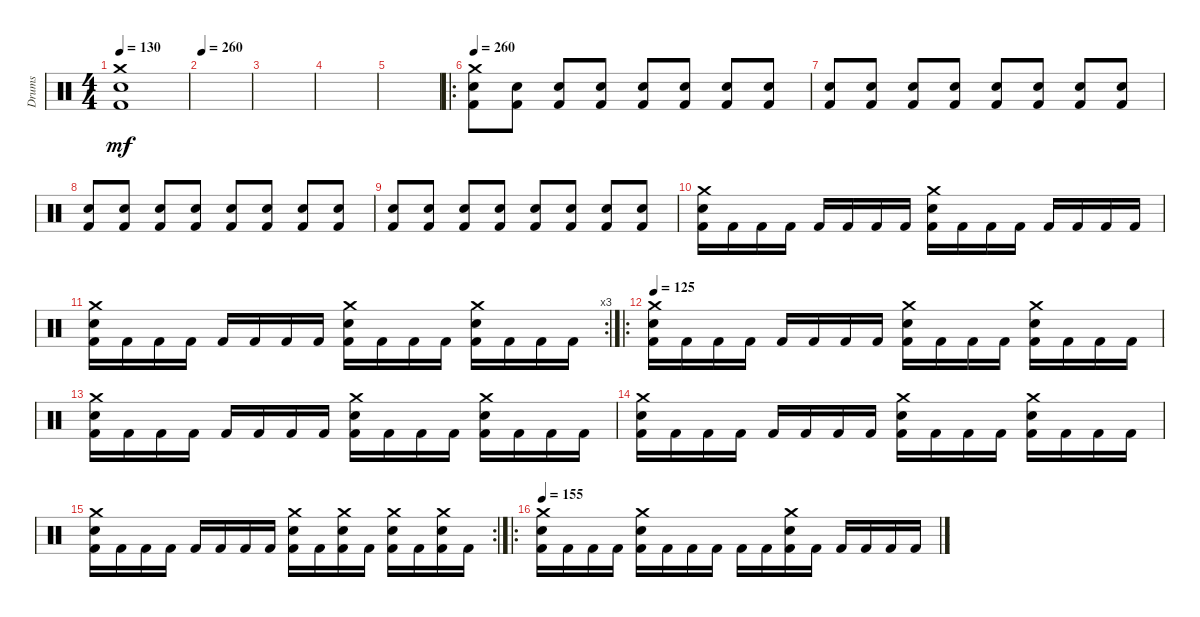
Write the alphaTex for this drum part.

\track ("Drums" "Drums") {instrument percussion}
\staff {score}
\articulation defaults
\ts (4 4)
\tempo 130
\clef neutral
\ks c
("Kick (hit) 2" "Snare (hit) 2" "Crash medium (hit)").1{dy mf} |
\tempo 260
|
|
|
|
\ro
\tempo 260
("Kick (hit) 2" "Snare (hit) 2" "Crash medium (hit)").8 ("Kick (hit) 2" "Snare (hit) 2").8 ("Kick (hit) 2" "Snare (hit) 2").8 ("Kick (hit) 2" "Snare (hit) 2").8 ("Kick (hit) 2" "Snare (hit) 2").8 ("Kick (hit) 2" "Snare (hit) 2").8 ("Kick (hit) 2" "Snare (hit) 2").8 ("Kick (hit) 2" "Snare (hit) 2").8 |
("Kick (hit) 2" "Snare (hit) 2").8 ("Kick (hit) 2" "Snare (hit) 2").8 ("Kick (hit) 2" "Snare (hit) 2").8 ("Kick (hit) 2" "Snare (hit) 2").8 ("Kick (hit) 2" "Snare (hit) 2").8 ("Kick (hit) 2" "Snare (hit) 2").8 ("Kick (hit) 2" "Snare (hit) 2").8 ("Kick (hit) 2" "Snare (hit) 2").8 |
("Kick (hit) 2" "Snare (hit) 2").8 ("Kick (hit) 2" "Snare (hit) 2").8 ("Kick (hit) 2" "Snare (hit) 2").8 ("Kick (hit) 2" "Snare (hit) 2").8 ("Kick (hit) 2" "Snare (hit) 2").8 ("Kick (hit) 2" "Snare (hit) 2").8 ("Kick (hit) 2" "Snare (hit) 2").8 ("Kick (hit) 2" "Snare (hit) 2").8 |
("Kick (hit) 2" "Snare (hit) 2").8 ("Kick (hit) 2" "Snare (hit) 2").8 ("Kick (hit) 2" "Snare (hit) 2").8 ("Kick (hit) 2" "Snare (hit) 2").8 ("Kick (hit) 2" "Snare (hit) 2").8 ("Kick (hit) 2" "Snare (hit) 2").8 ("Kick (hit) 2" "Snare (hit) 2").8 ("Kick (hit) 2" "Snare (hit) 2").8 |
("Kick (hit) 2" "Snare (hit) 2" "Crash medium (hit)").16 "Kick (hit) 2".16 "Kick (hit) 2".16 "Kick (hit) 2".16 "Kick (hit) 2".16 "Kick (hit) 2".16 "Kick (hit) 2".16 "Kick (hit) 2".16 ("Kick (hit) 2" "Snare (hit) 2" "Crash medium (hit)").16 "Kick (hit) 2".16 "Kick (hit) 2".16 "Kick (hit) 2".16 "Kick (hit) 2".16 "Kick (hit) 2".16 "Kick (hit) 2".16 "Kick (hit) 2".16 |
\rc 3
("Kick (hit) 2" "Snare (hit) 2" "Crash medium (hit)").16 "Kick (hit) 2".16 "Kick (hit) 2".16 "Kick (hit) 2".16 "Kick (hit) 2".16 "Kick (hit) 2".16 "Kick (hit) 2".16 "Kick (hit) 2".16 ("Kick (hit) 2" "Snare (hit) 2" "Crash medium (hit)").16 "Kick (hit) 2".16 "Kick (hit) 2".16 "Kick (hit) 2".16 ("Kick (hit) 2" "Snare (hit) 2" "Crash medium (hit)").16 "Kick (hit) 2".16 "Kick (hit) 2".16 "Kick (hit) 2".16 |
\ro
\tempo 125
("Kick (hit) 2" "Snare (hit) 2" "Crash medium (hit)").16 "Kick (hit) 2".16 "Kick (hit) 2".16 "Kick (hit) 2".16 "Kick (hit) 2".16 "Kick (hit) 2".16 "Kick (hit) 2".16 "Kick (hit) 2".16 ("Kick (hit) 2" "Snare (hit) 2" "Crash medium (hit)").16 "Kick (hit) 2".16 "Kick (hit) 2".16 "Kick (hit) 2".16 ("Kick (hit) 2" "Snare (hit) 2" "Crash medium (hit)").16 "Kick (hit) 2".16 "Kick (hit) 2".16 "Kick (hit) 2".16 |
("Kick (hit) 2" "Snare (hit) 2" "Crash medium (hit)").16 "Kick (hit) 2".16 "Kick (hit) 2".16 "Kick (hit) 2".16 "Kick (hit) 2".16 "Kick (hit) 2".16 "Kick (hit) 2".16 "Kick (hit) 2".16 ("Kick (hit) 2" "Snare (hit) 2" "Crash medium (hit)").16 "Kick (hit) 2".16 "Kick (hit) 2".16 "Kick (hit) 2".16 ("Kick (hit) 2" "Snare (hit) 2" "Crash medium (hit)").16 "Kick (hit) 2".16 "Kick (hit) 2".16 "Kick (hit) 2".16 |
("Kick (hit) 2" "Snare (hit) 2" "Crash medium (hit)").16 "Kick (hit) 2".16 "Kick (hit) 2".16 "Kick (hit) 2".16 "Kick (hit) 2".16 "Kick (hit) 2".16 "Kick (hit) 2".16 "Kick (hit) 2".16 ("Kick (hit) 2" "Snare (hit) 2" "Crash medium (hit)").16 "Kick (hit) 2".16 "Kick (hit) 2".16 "Kick (hit) 2".16 ("Kick (hit) 2" "Snare (hit) 2" "Crash medium (hit)").16 "Kick (hit) 2".16 "Kick (hit) 2".16 "Kick (hit) 2".16 |
\rc 2
("Kick (hit) 2" "Snare (hit) 2" "Crash medium (hit)").16 "Kick (hit) 2".16 "Kick (hit) 2".16 "Kick (hit) 2".16 "Kick (hit) 2".16 "Kick (hit) 2".16 "Kick (hit) 2".16 "Kick (hit) 2".16 ("Kick (hit) 2" "Snare (hit) 2" "Crash medium (hit)").16 "Kick (hit) 2".16 ("Kick (hit) 2" "Snare (hit) 2" "Crash medium (hit)").16 "Kick (hit) 2".16 ("Kick (hit) 2" "Snare (hit) 2" "Crash medium (hit)").16 "Kick (hit) 2".16 ("Kick (hit) 2" "Snare (hit) 2" "Crash medium (hit)").16 "Kick (hit) 2".16 |
\ro
\tempo 155
("Kick (hit) 2" "Snare (hit) 2" "Crash medium (hit)").16 "Kick (hit) 2".16 "Kick (hit) 2".16 "Kick (hit) 2".16 ("Kick (hit) 2" "Snare (hit) 2" "Crash medium (hit)").16 "Kick (hit) 2".16 "Kick (hit) 2".16 "Kick (hit) 2".16 "Kick (hit) 2".16 "Kick (hit) 2".16 ("Kick (hit) 2" "Snare (hit) 2" "Crash medium (hit)").16 "Kick (hit) 2".16 "Kick (hit) 2".16 "Kick (hit) 2".16 "Kick (hit) 2".16 "Kick (hit) 2".16
